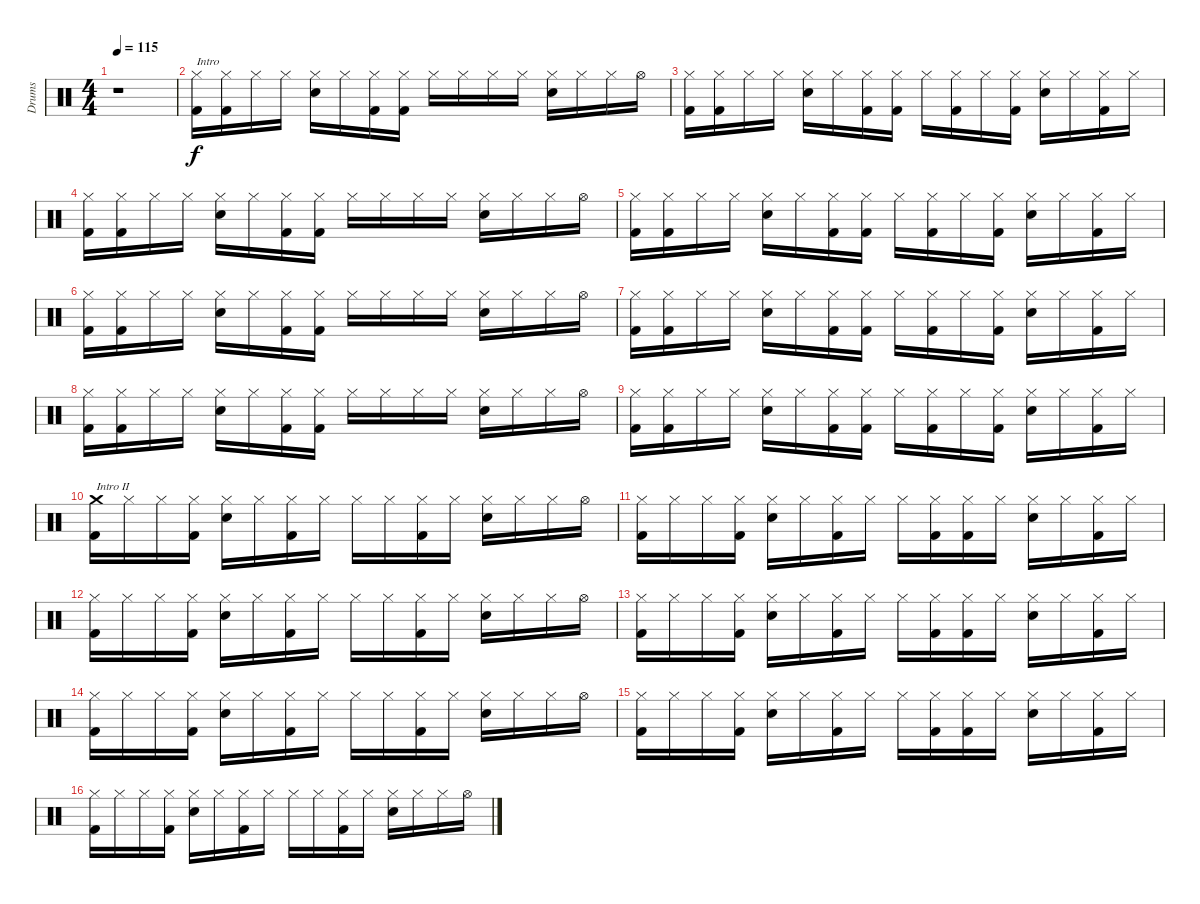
\track ("Drums" "Drums") {instrument percussion}
\staff {score}
\articulation defaults
\ts (4 4)
\tempo 115
\clef neutral
\ks c
r.1{dy f} |
("Hi-Hat (closed)" "Kick (hit) 2").16{txt "Intro"} ("Hi-Hat (closed)" "Kick (hit) 2").16 "Hi-Hat (closed)".16 "Hi-Hat (closed)".16 ("Hi-Hat (closed)" "Electric Snare (hit)").16 "Hi-Hat (closed)".16 ("Hi-Hat (closed)" "Kick (hit) 2").16 ("Hi-Hat (closed)" "Kick (hit) 2").16 "Hi-Hat (closed)".16 "Hi-Hat (closed)".16 "Hi-Hat (closed)".16 "Hi-Hat (closed)".16 ("Hi-Hat (closed)" "Electric Snare (hit)").16 "Hi-Hat (closed)".16 "Hi-Hat (closed)".16 "Hi-Hat (open)".16 |
("Hi-Hat (closed)" "Kick (hit) 2").16 ("Hi-Hat (closed)" "Kick (hit) 2").16 "Hi-Hat (closed)".16 "Hi-Hat (closed)".16 ("Hi-Hat (closed)" "Electric Snare (hit)").16 "Hi-Hat (closed)".16 ("Hi-Hat (closed)" "Kick (hit) 2").16 ("Hi-Hat (closed)" "Kick (hit) 2").16 "Hi-Hat (closed)".16 ("Hi-Hat (closed)" "Kick (hit) 2").16 "Hi-Hat (closed)".16 ("Hi-Hat (closed)" "Kick (hit) 2").16 ("Hi-Hat (closed)" "Electric Snare (hit)").16 "Hi-Hat (closed)".16 ("Hi-Hat (closed)" "Kick (hit) 2").16 "Hi-Hat (closed)".16 |
("Hi-Hat (closed)" "Kick (hit) 2").16 ("Hi-Hat (closed)" "Kick (hit) 2").16 "Hi-Hat (closed)".16 "Hi-Hat (closed)".16 ("Hi-Hat (closed)" "Electric Snare (hit)").16 "Hi-Hat (closed)".16 ("Hi-Hat (closed)" "Kick (hit) 2").16 ("Hi-Hat (closed)" "Kick (hit) 2").16 "Hi-Hat (closed)".16 "Hi-Hat (closed)".16 "Hi-Hat (closed)".16 "Hi-Hat (closed)".16 ("Hi-Hat (closed)" "Electric Snare (hit)").16 "Hi-Hat (closed)".16 "Hi-Hat (closed)".16 "Hi-Hat (open)".16 |
("Hi-Hat (closed)" "Kick (hit) 2").16 ("Hi-Hat (closed)" "Kick (hit) 2").16 "Hi-Hat (closed)".16 "Hi-Hat (closed)".16 ("Hi-Hat (closed)" "Electric Snare (hit)").16 "Hi-Hat (closed)".16 ("Hi-Hat (closed)" "Kick (hit) 2").16 ("Hi-Hat (closed)" "Kick (hit) 2").16 "Hi-Hat (closed)".16 ("Hi-Hat (closed)" "Kick (hit) 2").16 "Hi-Hat (closed)".16 ("Hi-Hat (closed)" "Kick (hit) 2").16 ("Hi-Hat (closed)" "Electric Snare (hit)").16 "Hi-Hat (closed)".16 ("Hi-Hat (closed)" "Kick (hit) 2").16 "Hi-Hat (closed)".16 |
("Hi-Hat (closed)" "Kick (hit) 2").16 ("Hi-Hat (closed)" "Kick (hit) 2").16 "Hi-Hat (closed)".16 "Hi-Hat (closed)".16 ("Hi-Hat (closed)" "Electric Snare (hit)").16 "Hi-Hat (closed)".16 ("Hi-Hat (closed)" "Kick (hit) 2").16 ("Hi-Hat (closed)" "Kick (hit) 2").16 "Hi-Hat (closed)".16 "Hi-Hat (closed)".16 "Hi-Hat (closed)".16 "Hi-Hat (closed)".16 ("Hi-Hat (closed)" "Electric Snare (hit)").16 "Hi-Hat (closed)".16 "Hi-Hat (closed)".16 "Hi-Hat (open)".16 |
("Hi-Hat (closed)" "Kick (hit) 2").16 ("Hi-Hat (closed)" "Kick (hit) 2").16 "Hi-Hat (closed)".16 "Hi-Hat (closed)".16 ("Hi-Hat (closed)" "Electric Snare (hit)").16 "Hi-Hat (closed)".16 ("Hi-Hat (closed)" "Kick (hit) 2").16 ("Hi-Hat (closed)" "Kick (hit) 2").16 "Hi-Hat (closed)".16 ("Hi-Hat (closed)" "Kick (hit) 2").16 "Hi-Hat (closed)".16 ("Hi-Hat (closed)" "Kick (hit) 2").16 ("Hi-Hat (closed)" "Electric Snare (hit)").16 "Hi-Hat (closed)".16 ("Hi-Hat (closed)" "Kick (hit) 2").16 "Hi-Hat (closed)".16 |
("Hi-Hat (closed)" "Kick (hit) 2").16 ("Hi-Hat (closed)" "Kick (hit) 2").16 "Hi-Hat (closed)".16 "Hi-Hat (closed)".16 ("Hi-Hat (closed)" "Electric Snare (hit)").16 "Hi-Hat (closed)".16 ("Hi-Hat (closed)" "Kick (hit) 2").16 ("Hi-Hat (closed)" "Kick (hit) 2").16 "Hi-Hat (closed)".16 "Hi-Hat (closed)".16 "Hi-Hat (closed)".16 "Hi-Hat (closed)".16 ("Hi-Hat (closed)" "Electric Snare (hit)").16 "Hi-Hat (closed)".16 "Hi-Hat (closed)".16 "Hi-Hat (open)".16 |
("Hi-Hat (closed)" "Kick (hit) 2").16 ("Hi-Hat (closed)" "Kick (hit) 2").16 "Hi-Hat (closed)".16 "Hi-Hat (closed)".16 ("Hi-Hat (closed)" "Electric Snare (hit)").16 "Hi-Hat (closed)".16 ("Hi-Hat (closed)" "Kick (hit) 2").16 ("Hi-Hat (closed)" "Kick (hit) 2").16 "Hi-Hat (closed)".16 ("Hi-Hat (closed)" "Kick (hit) 2").16 "Hi-Hat (closed)".16 ("Hi-Hat (closed)" "Kick (hit) 2").16 ("Hi-Hat (closed)" "Electric Snare (hit)").16 "Hi-Hat (closed)".16 ("Hi-Hat (closed)" "Kick (hit) 2").16 "Hi-Hat (closed)".16 |
("Crash medium (hit)" "Kick (hit) 2").16{txt "Intro II"} "Hi-Hat (closed)".16 "Hi-Hat (closed)".16 ("Hi-Hat (closed)" "Kick (hit) 2").16 ("Hi-Hat (closed)" "Electric Snare (hit)").16 "Hi-Hat (closed)".16 ("Hi-Hat (closed)" "Kick (hit) 2").16 "Hi-Hat (closed)".16 "Hi-Hat (closed)".16 "Hi-Hat (closed)".16 ("Hi-Hat (closed)" "Kick (hit) 2").16 "Hi-Hat (closed)".16 ("Hi-Hat (closed)" "Electric Snare (hit)").16 "Hi-Hat (closed)".16 "Hi-Hat (closed)".16 "Hi-Hat (open)".16 |
("Hi-Hat (closed)" "Kick (hit) 2").16 "Hi-Hat (closed)".16 "Hi-Hat (closed)".16 ("Hi-Hat (closed)" "Kick (hit) 2").16 ("Hi-Hat (closed)" "Electric Snare (hit)").16 "Hi-Hat (closed)".16 ("Hi-Hat (closed)" "Kick (hit) 2").16 "Hi-Hat (closed)".16 "Hi-Hat (closed)".16 ("Hi-Hat (closed)" "Kick (hit) 2").16 ("Hi-Hat (closed)" "Kick (hit) 2").16 "Hi-Hat (closed)".16 ("Hi-Hat (closed)" "Electric Snare (hit)").16 "Hi-Hat (closed)".16 ("Hi-Hat (closed)" "Kick (hit) 2").16 "Hi-Hat (closed)".16 |
("Hi-Hat (closed)" "Kick (hit) 2").16 "Hi-Hat (closed)".16 "Hi-Hat (closed)".16 ("Hi-Hat (closed)" "Kick (hit) 2").16 ("Hi-Hat (closed)" "Electric Snare (hit)").16 "Hi-Hat (closed)".16 ("Hi-Hat (closed)" "Kick (hit) 2").16 "Hi-Hat (closed)".16 "Hi-Hat (closed)".16 "Hi-Hat (closed)".16 ("Hi-Hat (closed)" "Kick (hit) 2").16 "Hi-Hat (closed)".16 ("Hi-Hat (closed)" "Electric Snare (hit)").16 "Hi-Hat (closed)".16 "Hi-Hat (closed)".16 "Hi-Hat (open)".16 |
("Hi-Hat (closed)" "Kick (hit) 2").16 "Hi-Hat (closed)".16 "Hi-Hat (closed)".16 ("Hi-Hat (closed)" "Kick (hit) 2").16 ("Hi-Hat (closed)" "Electric Snare (hit)").16 "Hi-Hat (closed)".16 ("Hi-Hat (closed)" "Kick (hit) 2").16 "Hi-Hat (closed)".16 "Hi-Hat (closed)".16 ("Hi-Hat (closed)" "Kick (hit) 2").16 ("Hi-Hat (closed)" "Kick (hit) 2").16 "Hi-Hat (closed)".16 ("Hi-Hat (closed)" "Electric Snare (hit)").16 "Hi-Hat (closed)".16 ("Hi-Hat (closed)" "Kick (hit) 2").16 "Hi-Hat (closed)".16 |
("Hi-Hat (closed)" "Kick (hit) 2").16 "Hi-Hat (closed)".16 "Hi-Hat (closed)".16 ("Hi-Hat (closed)" "Kick (hit) 2").16 ("Hi-Hat (closed)" "Electric Snare (hit)").16 "Hi-Hat (closed)".16 ("Hi-Hat (closed)" "Kick (hit) 2").16 "Hi-Hat (closed)".16 "Hi-Hat (closed)".16 "Hi-Hat (closed)".16 ("Hi-Hat (closed)" "Kick (hit) 2").16 "Hi-Hat (closed)".16 ("Hi-Hat (closed)" "Electric Snare (hit)").16 "Hi-Hat (closed)".16 "Hi-Hat (closed)".16 "Hi-Hat (open)".16 |
("Hi-Hat (closed)" "Kick (hit) 2").16 "Hi-Hat (closed)".16 "Hi-Hat (closed)".16 ("Hi-Hat (closed)" "Kick (hit) 2").16 ("Hi-Hat (closed)" "Electric Snare (hit)").16 "Hi-Hat (closed)".16 ("Hi-Hat (closed)" "Kick (hit) 2").16 "Hi-Hat (closed)".16 "Hi-Hat (closed)".16 ("Hi-Hat (closed)" "Kick (hit) 2").16 ("Hi-Hat (closed)" "Kick (hit) 2").16 "Hi-Hat (closed)".16 ("Hi-Hat (closed)" "Electric Snare (hit)").16 "Hi-Hat (closed)".16 ("Hi-Hat (closed)" "Kick (hit) 2").16 "Hi-Hat (closed)".16 |
("Hi-Hat (closed)" "Kick (hit) 2").16 "Hi-Hat (closed)".16 "Hi-Hat (closed)".16 ("Hi-Hat (closed)" "Kick (hit) 2").16 ("Hi-Hat (closed)" "Electric Snare (hit)").16 "Hi-Hat (closed)".16 ("Hi-Hat (closed)" "Kick (hit) 2").16 "Hi-Hat (closed)".16 "Hi-Hat (closed)".16 "Hi-Hat (closed)".16 ("Hi-Hat (closed)" "Kick (hit) 2").16 "Hi-Hat (closed)".16 ("Hi-Hat (closed)" "Electric Snare (hit)").16 "Hi-Hat (closed)".16 "Hi-Hat (closed)".16 "Hi-Hat (open)".16
